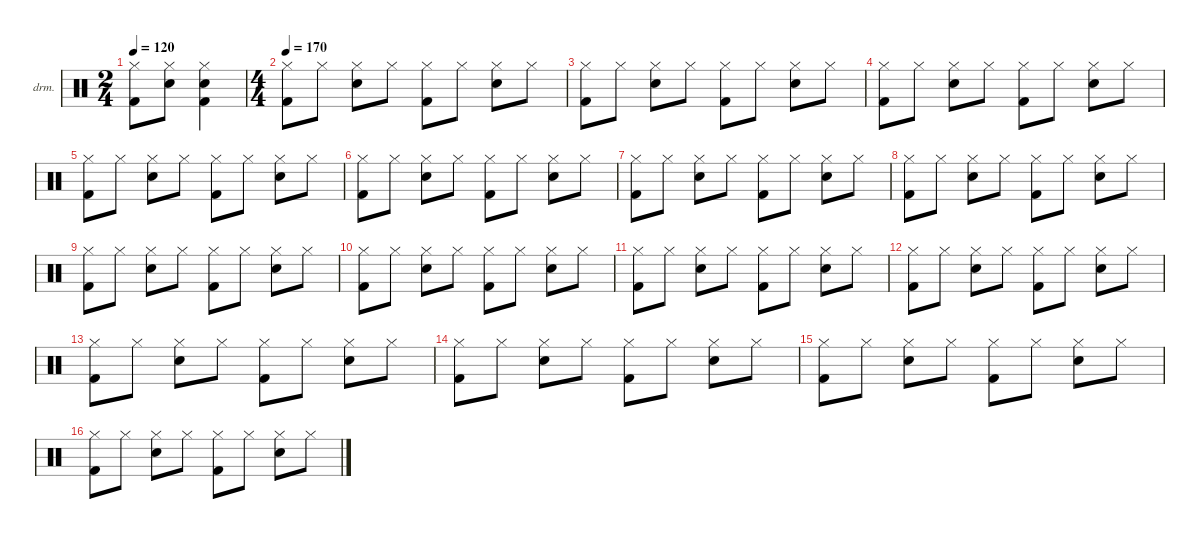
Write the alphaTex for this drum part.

\hideDynamics
\bracketExtendMode nobrackets
\firstSystemTrackNameOrientation horizontal
\otherSystemsTrackNameOrientation horizontal
\track ("韩子钰" "drm.") {instrument percussion}
\staff {score}
\articulation defaults
\ts (2 4)
\tempo 120
\clef neutral
\ks c
("Hi-Hat (closed)" "Kick (hit) 2").8{dy f} ("Hi-Hat (closed)" "Snare (hit) 2").8 ("Hi-Hat (closed)" "Snare (hit) 2" "Kick (hit) 2").4 |
\ts (4 4)
\beaming (8 2 2 2 2)
\tempo 170
("Hi-Hat (closed)" "Kick (hit) 2").8 "Hi-Hat (closed)".8 ("Hi-Hat (closed)" "Snare (hit) 2").8 "Hi-Hat (closed)".8 ("Hi-Hat (closed)" "Kick (hit) 2").8 "Hi-Hat (closed)".8 ("Hi-Hat (closed)" "Snare (hit) 2").8 "Hi-Hat (closed)".8 |
("Hi-Hat (closed)" "Kick (hit) 2").8 "Hi-Hat (closed)".8 ("Hi-Hat (closed)" "Snare (hit) 2").8 "Hi-Hat (closed)".8 ("Hi-Hat (closed)" "Kick (hit) 2").8 "Hi-Hat (closed)".8 ("Hi-Hat (closed)" "Snare (hit) 2").8 "Hi-Hat (closed)".8 |
("Hi-Hat (closed)" "Kick (hit) 2").8 "Hi-Hat (closed)".8 ("Hi-Hat (closed)" "Snare (hit) 2").8 "Hi-Hat (closed)".8 ("Hi-Hat (closed)" "Kick (hit) 2").8 "Hi-Hat (closed)".8 ("Hi-Hat (closed)" "Snare (hit) 2").8 "Hi-Hat (closed)".8 |
("Hi-Hat (closed)" "Kick (hit) 2").8 "Hi-Hat (closed)".8 ("Hi-Hat (closed)" "Snare (hit) 2").8 "Hi-Hat (closed)".8 ("Hi-Hat (closed)" "Kick (hit) 2").8 "Hi-Hat (closed)".8 ("Hi-Hat (closed)" "Snare (hit) 2").8 "Hi-Hat (closed)".8 |
("Hi-Hat (closed)" "Kick (hit) 2").8 "Hi-Hat (closed)".8 ("Hi-Hat (closed)" "Snare (hit) 2").8 "Hi-Hat (closed)".8 ("Hi-Hat (closed)" "Kick (hit) 2").8 "Hi-Hat (closed)".8 ("Hi-Hat (closed)" "Snare (hit) 2").8 "Hi-Hat (closed)".8 |
("Hi-Hat (closed)" "Kick (hit) 2").8 "Hi-Hat (closed)".8 ("Hi-Hat (closed)" "Snare (hit) 2").8 "Hi-Hat (closed)".8 ("Hi-Hat (closed)" "Kick (hit) 2").8 "Hi-Hat (closed)".8 ("Hi-Hat (closed)" "Snare (hit) 2").8 "Hi-Hat (closed)".8 |
("Hi-Hat (closed)" "Kick (hit) 2").8 "Hi-Hat (closed)".8 ("Hi-Hat (closed)" "Snare (hit) 2").8 "Hi-Hat (closed)".8 ("Hi-Hat (closed)" "Kick (hit) 2").8 "Hi-Hat (closed)".8 ("Hi-Hat (closed)" "Snare (hit) 2").8 "Hi-Hat (closed)".8 |
("Hi-Hat (closed)" "Kick (hit) 2").8 "Hi-Hat (closed)".8 ("Hi-Hat (closed)" "Snare (hit) 2").8 "Hi-Hat (closed)".8 ("Hi-Hat (closed)" "Kick (hit) 2").8 "Hi-Hat (closed)".8 ("Hi-Hat (closed)" "Snare (hit) 2").8 "Hi-Hat (closed)".8 |
("Hi-Hat (closed)" "Kick (hit) 2").8 "Hi-Hat (closed)".8 ("Hi-Hat (closed)" "Snare (hit) 2").8 "Hi-Hat (closed)".8 ("Hi-Hat (closed)" "Kick (hit) 2").8 "Hi-Hat (closed)".8 ("Hi-Hat (closed)" "Snare (hit) 2").8 "Hi-Hat (closed)".8 |
("Hi-Hat (closed)" "Kick (hit) 2").8 "Hi-Hat (closed)".8 ("Hi-Hat (closed)" "Snare (hit) 2").8 "Hi-Hat (closed)".8 ("Hi-Hat (closed)" "Kick (hit) 2").8 "Hi-Hat (closed)".8 ("Hi-Hat (closed)" "Snare (hit) 2").8 "Hi-Hat (closed)".8 |
("Hi-Hat (closed)" "Kick (hit) 2").8 "Hi-Hat (closed)".8 ("Hi-Hat (closed)" "Snare (hit) 2").8 "Hi-Hat (closed)".8 ("Hi-Hat (closed)" "Kick (hit) 2").8 "Hi-Hat (closed)".8 ("Hi-Hat (closed)" "Snare (hit) 2").8 "Hi-Hat (closed)".8 |
("Hi-Hat (closed)" "Kick (hit) 2").8 "Hi-Hat (closed)".8 ("Hi-Hat (closed)" "Snare (hit) 2").8 "Hi-Hat (closed)".8 ("Hi-Hat (closed)" "Kick (hit) 2").8 "Hi-Hat (closed)".8 ("Hi-Hat (closed)" "Snare (hit) 2").8 "Hi-Hat (closed)".8 |
("Hi-Hat (closed)" "Kick (hit) 2").8 "Hi-Hat (closed)".8 ("Hi-Hat (closed)" "Snare (hit) 2").8 "Hi-Hat (closed)".8 ("Hi-Hat (closed)" "Kick (hit) 2").8 "Hi-Hat (closed)".8 ("Hi-Hat (closed)" "Snare (hit) 2").8 "Hi-Hat (closed)".8 |
("Hi-Hat (closed)" "Kick (hit) 2").8 "Hi-Hat (closed)".8 ("Hi-Hat (closed)" "Snare (hit) 2").8 "Hi-Hat (closed)".8 ("Hi-Hat (closed)" "Kick (hit) 2").8 "Hi-Hat (closed)".8 ("Hi-Hat (closed)" "Snare (hit) 2").8 "Hi-Hat (closed)".8 |
("Hi-Hat (closed)" "Kick (hit) 2").8 "Hi-Hat (closed)".8 ("Hi-Hat (closed)" "Snare (hit) 2").8 "Hi-Hat (closed)".8 ("Hi-Hat (closed)" "Kick (hit) 2").8 "Hi-Hat (closed)".8 ("Hi-Hat (closed)" "Snare (hit) 2").8 "Hi-Hat (closed)".8
